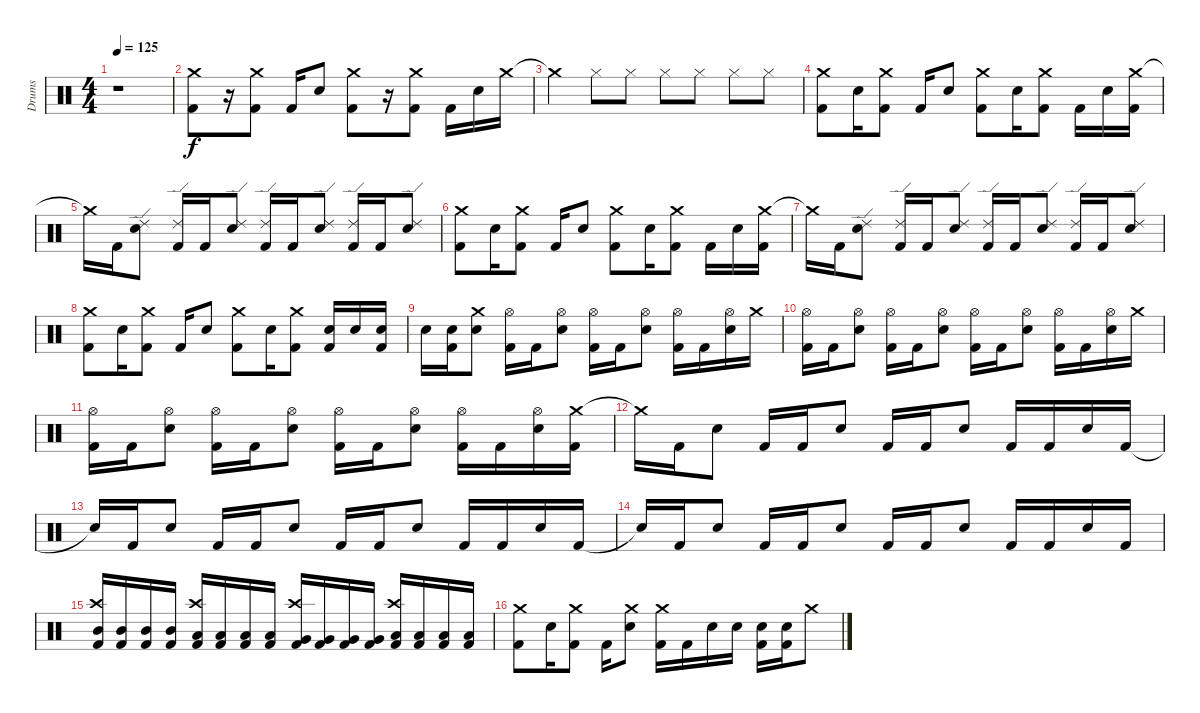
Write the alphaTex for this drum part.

\track ("Drums" "Drums") {instrument percussion}
\staff {score}
\articulation defaults
\ts (4 4)
\tempo 125
\clef neutral
\ks c
r.1{dy f} |
("Crash medium (hit)" "Kick (hit) 2").8 r.16 ("Crash medium (hit)" "Kick (hit) 2").8 "Kick (hit) 2".16 "Snare (hit) 2".8 ("Crash medium (hit)" "Kick (hit) 2").8 r.16 ("Crash medium (hit)" "Kick (hit) 2").8 "Kick (hit) 2".16 "Snare (hit) 2".16 "Crash medium (hit)".16 |
"Crash medium (hit)"{t}.4 "Hi-Hat (closed)".8 "Hi-Hat (closed)".8 "Hi-Hat (closed)".8 "Hi-Hat (closed)".8 "Hi-Hat (closed)".8 "Hi-Hat (closed)".8 |
("Crash medium (hit)" "Kick (hit) 2").8 "Snare (hit) 2".16 ("Crash medium (hit)" "Kick (hit) 2").8 "Kick (hit) 2".16 "Snare (hit) 2".8 ("Crash medium (hit)" "Kick (hit) 2").8 "Snare (hit) 2".16 ("Crash medium (hit)" "Kick (hit) 2").8 "Kick (hit) 2".16 "Snare (hit) 2".16 ("Crash medium (hit)" "Kick (hit) 2").16 |
"Crash medium (hit)"{t}.16 "Kick (hit) 2".16 ("Snare (hit) 2" "Ride (edge) 2").8 ("Ride (edge) 2" "Kick (hit) 2").16 "Kick (hit) 2".16 ("Snare (hit) 2" "Ride (edge) 2").8 ("Ride (edge) 2" "Kick (hit) 2").16 "Kick (hit) 2".16 ("Snare (hit) 2" "Ride (edge) 2").8 ("Ride (edge) 2" "Kick (hit) 2").16 "Kick (hit) 2".16 ("Snare (hit) 2" "Ride (edge) 2").8 |
("Crash medium (hit)" "Kick (hit) 2").8 "Snare (hit) 2".16 ("Crash medium (hit)" "Kick (hit) 2").8 "Kick (hit) 2".16 "Snare (hit) 2".8 ("Crash medium (hit)" "Kick (hit) 2").8 "Snare (hit) 2".16 ("Crash medium (hit)" "Kick (hit) 2").8 "Kick (hit) 2".16 "Snare (hit) 2".16 ("Crash medium (hit)" "Kick (hit) 2").16 |
"Crash medium (hit)"{t}.16 "Kick (hit) 2".16 ("Snare (hit) 2" "Ride (edge) 2").8 ("Ride (edge) 2" "Kick (hit) 2").16 "Kick (hit) 2".16 ("Snare (hit) 2" "Ride (edge) 2").8 ("Ride (edge) 2" "Kick (hit) 2").16 "Kick (hit) 2".16 ("Snare (hit) 2" "Ride (edge) 2").8 ("Ride (edge) 2" "Kick (hit) 2").16 "Kick (hit) 2".16 ("Snare (hit) 2" "Ride (edge) 2").8 |
("Crash medium (hit)" "Kick (hit) 2").8 "Snare (hit) 2".16 ("Crash medium (hit)" "Kick (hit) 2").8 "Kick (hit) 2".16 "Snare (hit) 2".8 ("Crash medium (hit)" "Kick (hit) 2").8 "Snare (hit) 2".16 ("Crash medium (hit)" "Kick (hit) 2").8 ("Snare (hit) 2" "Kick (hit) 2").16 "Snare (hit) 2".16 ("Snare (hit) 2" "Kick (hit) 2").16 |
"Snare (hit) 2".16 ("Snare (hit) 2" "Kick (hit) 2").16 ("Crash medium (hit)" "Snare (hit) 2").8 ("Hi-Hat (open)" "Kick (hit) 2").16 "Kick (hit) 2".16 ("Snare (hit) 2" "Hi-Hat (open)").8 ("Hi-Hat (open)" "Kick (hit) 2").16 "Kick (hit) 2".16 ("Snare (hit) 2" "Hi-Hat (open)").8 ("Hi-Hat (open)" "Kick (hit) 2").16 "Kick (hit) 2".16 ("Snare (hit) 2" "Hi-Hat (open)").16 "Crash medium (hit)".16 |
("Hi-Hat (open)" "Kick (hit) 2").16 "Kick (hit) 2".16 ("Snare (hit) 2" "Hi-Hat (open)").8 ("Hi-Hat (open)" "Kick (hit) 2").16 "Kick (hit) 2".16 ("Snare (hit) 2" "Hi-Hat (open)").8 ("Hi-Hat (open)" "Kick (hit) 2").16 "Kick (hit) 2".16 ("Snare (hit) 2" "Hi-Hat (open)").8 ("Hi-Hat (open)" "Kick (hit) 2").16 "Kick (hit) 2".16 ("Snare (hit) 2" "Hi-Hat (open)").16 "Crash medium (hit)".16 |
("Hi-Hat (open)" "Kick (hit) 2").16 "Kick (hit) 2".16 ("Snare (hit) 2" "Hi-Hat (open)").8 ("Hi-Hat (open)" "Kick (hit) 2").16 "Kick (hit) 2".16 ("Snare (hit) 2" "Hi-Hat (open)").8 ("Hi-Hat (open)" "Kick (hit) 2").16 "Kick (hit) 2".16 ("Snare (hit) 2" "Hi-Hat (open)").8 ("Hi-Hat (open)" "Kick (hit) 2").16 "Kick (hit) 2".16 ("Snare (hit) 2" "Hi-Hat (open)").16 ("Crash medium (hit)" "Kick (hit) 2").16 |
"Crash medium (hit)"{t}.16 "Kick (hit) 2".16 "Snare (hit) 2".8 "Kick (hit) 2".16 "Kick (hit) 2".16 "Snare (hit) 2".8 "Kick (hit) 2".16 "Kick (hit) 2".16 "Snare (hit) 2".8 "Kick (hit) 2".16 "Kick (hit) 2".16 "Snare (hit) 2".16 "Kick (hit) 2".16 |
"Snare (hit)"{t}.16 "Kick (hit) 2".16 "Snare (hit) 2".8 "Kick (hit) 2".16 "Kick (hit) 2".16 "Snare (hit) 2".8 "Kick (hit) 2".16 "Kick (hit) 2".16 "Snare (hit) 2".8 "Kick (hit) 2".16 "Kick (hit) 2".16 "Snare (hit) 2".16 "Kick (hit) 2".16 |
"Snare (hit)"{t}.16 "Kick (hit) 2".16 "Snare (hit) 2".8 "Kick (hit) 2".16 "Kick (hit) 2".16 "Snare (hit) 2".8 "Kick (hit) 2".16 "Kick (hit) 2".16 "Snare (hit) 2".8 "Kick (hit) 2".16 "Kick (hit) 2".16 "Snare (hit) 2".16 "Kick (hit) 2".16 |
("Crash high (hit)" "Mid Tom (hit)" "Kick (hit) 2").16 ("Mid Tom (hit)" "Kick (hit) 2").16 ("Mid Tom (hit)" "Kick (hit) 2").16 ("Mid Tom (hit)" "Kick (hit) 2").16 ("Crash high (hit)" "Low Tom (hit)" "Kick (hit) 2").16 ("Low Tom (hit)" "Kick (hit) 2").16 ("Low Tom (hit)" "Kick (hit) 2").16 ("Low Tom (hit)" "Kick (hit) 2").16 ("Crash high (hit)" "Very Low Tom (hit)" "Kick (hit) 2").16 ("Very Low Tom (hit)" "Kick (hit) 2").16 ("Very Low Tom (hit)" "Kick (hit) 2").16 ("Very Low Tom (hit)" "Kick (hit) 2").16 ("Crash high (hit)" "Low Floor Tom (hit)" "Kick (hit) 2").16 ("Low Floor Tom (hit)" "Kick (hit) 2").16 ("Low Floor Tom (hit)" "Kick (hit) 2").16 ("Low Floor Tom (hit)" "Kick (hit) 2").16 |
("Crash medium (hit)" "Kick (hit) 2").8 "Snare (hit) 2".16 ("Crash medium (hit)" "Kick (hit) 2").8 "Kick (hit) 2".16 ("Crash medium (hit)" "Snare (hit) 2").8 ("Crash medium (hit)" "Kick (hit) 2").16 "Kick (hit) 2".16 "Snare (hit) 2".16 "Snare (hit) 2".16 ("Snare (hit) 2" "Kick (hit) 2").16 ("Snare (hit) 2" "Kick (hit) 2").16 "Crash medium (hit)".8
